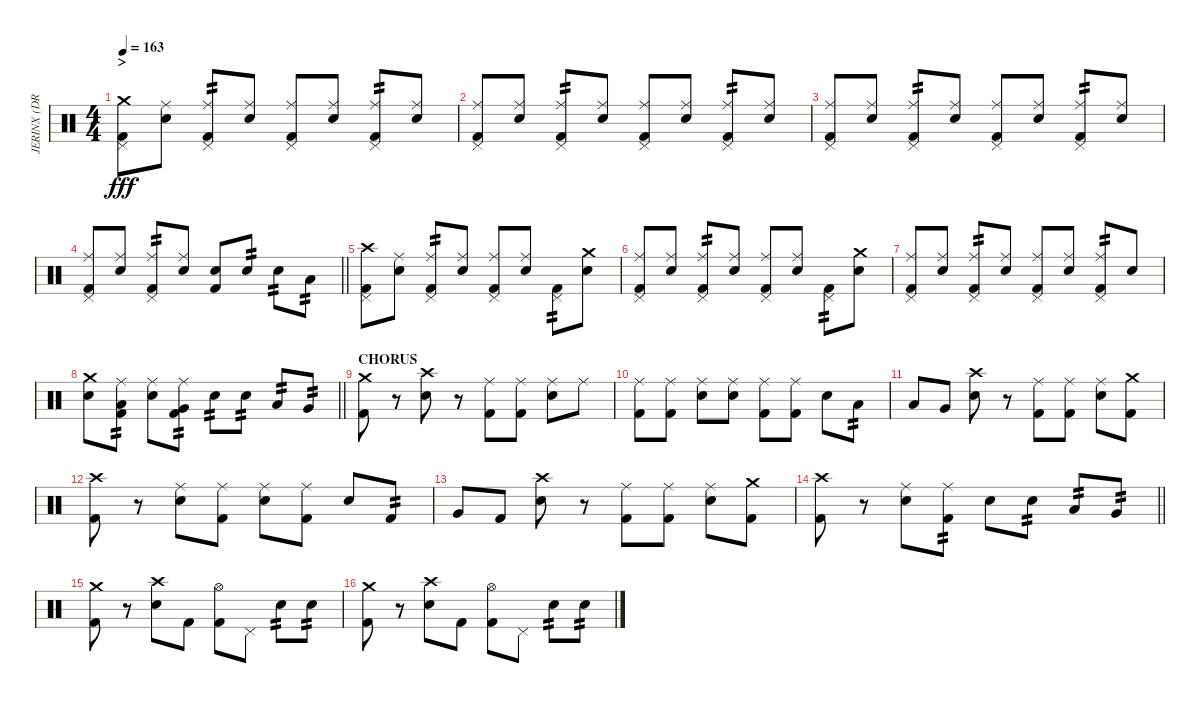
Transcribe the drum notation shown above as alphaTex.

\track ("JERINX (DRUM)" "JERINX (DR") {instrument percussion}
\staff {score}
\articulation defaults
\ts (4 4)
\section ("" ">")
\tempo 163
\clef neutral
\ks c
("Pedal Hi-Hat (hit)" "Kick (hit) 2" "Crash medium (hit)").8{dy fff} ("Snare (hit) 2" "Ride (middle)").8 ("Pedal Hi-Hat (hit)" "Kick (hit) 2" "Ride (middle)").8{tp 2} ("Snare (hit) 2" "Ride (middle)").8 ("Pedal Hi-Hat (hit)" "Kick (hit) 2" "Ride (middle)").8 ("Snare (hit) 2" "Ride (middle)").8 ("Pedal Hi-Hat (hit)" "Kick (hit) 2" "Ride (middle)").8{tp 2} ("Snare (hit) 2" "Ride (middle)").8 |
("Pedal Hi-Hat (hit)" "Kick (hit) 2" "Ride (middle)").8 ("Snare (hit) 2" "Ride (middle)").8 ("Pedal Hi-Hat (hit)" "Kick (hit) 2" "Ride (middle)").8{tp 2} ("Snare (hit) 2" "Ride (middle)").8 ("Pedal Hi-Hat (hit)" "Kick (hit) 2" "Ride (middle)").8 ("Snare (hit) 2" "Ride (middle)").8 ("Pedal Hi-Hat (hit)" "Kick (hit) 2" "Ride (middle)").8{tp 2} ("Snare (hit) 2" "Ride (middle)").8 |
("Pedal Hi-Hat (hit)" "Kick (hit) 2" "Ride (middle)").8 ("Snare (hit) 2" "Ride (middle)").8 ("Pedal Hi-Hat (hit)" "Kick (hit) 2" "Ride (middle)").8{tp 2} ("Snare (hit) 2" "Ride (middle)").8 ("Pedal Hi-Hat (hit)" "Kick (hit) 2" "Ride (middle)").8 ("Snare (hit) 2" "Ride (middle)").8 ("Pedal Hi-Hat (hit)" "Kick (hit) 2" "Ride (middle)").8{tp 2} ("Snare (hit) 2" "Ride (middle)").8 |
\barLineRight lightlight
("Pedal Hi-Hat (hit)" "Kick (hit) 2" "Ride (middle)").8 ("Snare (hit) 2" "Ride (middle)").8 ("Pedal Hi-Hat (hit)" "Kick (hit) 2" "Ride (middle)").8{tp 2} ("Snare (hit) 2" "Ride (middle)").8 ("Snare (hit) 2" "Kick (hit) 2").8 "Snare (hit) 2".8{tp 2} "Snare (hit) 2".8{tp 2} "Low Tom (hit)".8{tp 2} |
("Pedal Hi-Hat (hit)" "Kick (hit) 2" "Crash high (hit)").8 ("Snare (hit) 2" "Ride (middle)").8 ("Pedal Hi-Hat (hit)" "Kick (hit) 2" "Ride (middle)").8{tp 2} ("Snare (hit) 2" "Ride (middle)").8 ("Pedal Hi-Hat (hit)" "Kick (hit) 2" "Ride (middle)").8 ("Snare (hit) 2" "Ride (middle)").8 ("Pedal Hi-Hat (hit)" "Kick (hit) 2").8{tp 2} ("Snare (hit) 2" "Crash medium (hit)").8 |
("Pedal Hi-Hat (hit)" "Kick (hit) 2" "Ride (middle)").8 ("Snare (hit) 2" "Ride (middle)").8 ("Pedal Hi-Hat (hit)" "Kick (hit) 2" "Ride (middle)").8{tp 2} ("Snare (hit) 2" "Ride (middle)").8 ("Pedal Hi-Hat (hit)" "Kick (hit) 2" "Ride (middle)").8 ("Snare (hit) 2" "Ride (middle)").8 ("Pedal Hi-Hat (hit)" "Kick (hit) 2").8{tp 2} ("Snare (hit) 2" "Crash medium (hit)").8 |
("Pedal Hi-Hat (hit)" "Kick (hit) 2" "Ride (middle)").8 ("Snare (hit) 2" "Ride (middle)").8 ("Pedal Hi-Hat (hit)" "Kick (hit) 2" "Ride (middle)").8{tp 2} ("Snare (hit) 2" "Ride (middle)").8 ("Pedal Hi-Hat (hit)" "Kick (hit) 2" "Ride (middle)").8 ("Snare (hit) 2" "Ride (middle)").8 ("Pedal Hi-Hat (hit)" "Kick (hit) 2" "Ride (middle)").8{tp 2} "Snare (hit) 2".8 |
\barLineRight lightlight
("Snare (hit) 2" "Crash medium (hit)").8 ("Kick (hit) 2" "Low Tom (hit)" "Ride (middle)").8{tp 2} ("Snare (hit) 2" "Ride (middle)").8 ("Kick (hit) 2" "Very Low Tom (hit)" "Ride (middle)").8{tp 2} "Snare (hit) 2".8{tp 2} "Snare (hit) 2".8{tp 2} "Low Tom (hit)".8{tp 2} "Very Low Tom (hit)".8{tp 2} |
\section ("" "CHORUS")
("Kick (hit) 2" "Crash medium (hit)").8 r.8 ("Snare (hit) 2" "Crash high (hit)").8 r.8 ("Kick (hit) 2" "Ride (middle)").8 ("Kick (hit) 2" "Ride (middle)").8 ("Snare (hit) 2" "Ride (middle)").8 "Ride (middle)".8 |
("Kick (hit) 2" "Ride (middle)").8 ("Kick (hit) 2" "Ride (middle)").8 ("Snare (hit) 2" "Ride (middle)").8 ("Snare (hit) 2" "Ride (middle)").8 ("Kick (hit) 2" "Ride (middle)").8 ("Kick (hit) 2" "Ride (middle)").8 "Snare (hit) 2".8 "Low Tom (hit)".8{tp 2} |
"Low Tom (hit)".8 "Very Low Tom (hit)".8 ("Snare (hit) 2" "Crash high (hit)").8 r.8 ("Kick (hit) 2" "Ride (middle)").8 ("Kick (hit) 2" "Ride (middle)").8 ("Snare (hit) 2" "Ride (middle)").8 ("Kick (hit) 2" "Crash medium (hit)").8 |
("Kick (hit) 2" "Crash high (hit)").8 r.8 ("Snare (hit) 2" "Ride (middle)").8 ("Kick (hit) 2" "Ride (middle)").8 ("Snare (hit) 2" "Ride (middle)").8 ("Kick (hit) 2" "Ride (middle)").8 "Snare (hit) 2".8 "Kick (hit) 2".8{tp 2} |
"Very Low Tom (hit)".8 "Kick (hit) 2".8 ("Snare (hit) 2" "Crash high (hit)").8 r.8 ("Kick (hit) 2" "Ride (middle)").8 ("Kick (hit) 2" "Ride (middle)").8 ("Snare (hit) 2" "Ride (middle)").8 ("Kick (hit) 2" "Crash medium (hit)").8 |
\barLineRight lightlight
("Kick (hit) 2" "Crash high (hit)").8 r.8 ("Snare (hit) 2" "Ride (middle)").8 ("Kick (hit) 2" "Ride (middle)").8{tp 2} "Snare (hit) 2".8 "Snare (hit) 2".8{tp 2} "Low Tom (hit)".8{tp 2} "Very Low Tom (hit)".8{tp 2} |
("Kick (hit) 2" "Crash medium (hit)").8 r.8 ("Snare (hit) 2" "Crash high (hit)").8 "Kick (hit) 2".8 ("Hi-Hat (open)" "Kick (hit) 2").8 "Pedal Hi-Hat (hit)".8 "Snare (hit) 2".8{tp 2} "Snare (hit) 2".8{tp 2} |
("Kick (hit) 2" "Crash medium (hit)").8 r.8 ("Snare (hit) 2" "Crash high (hit)").8 "Kick (hit) 2".8 ("Hi-Hat (open)" "Kick (hit) 2").8 "Pedal Hi-Hat (hit)".8 "Snare (hit) 2".8{tp 2} "Snare (hit) 2".8{tp 2}
